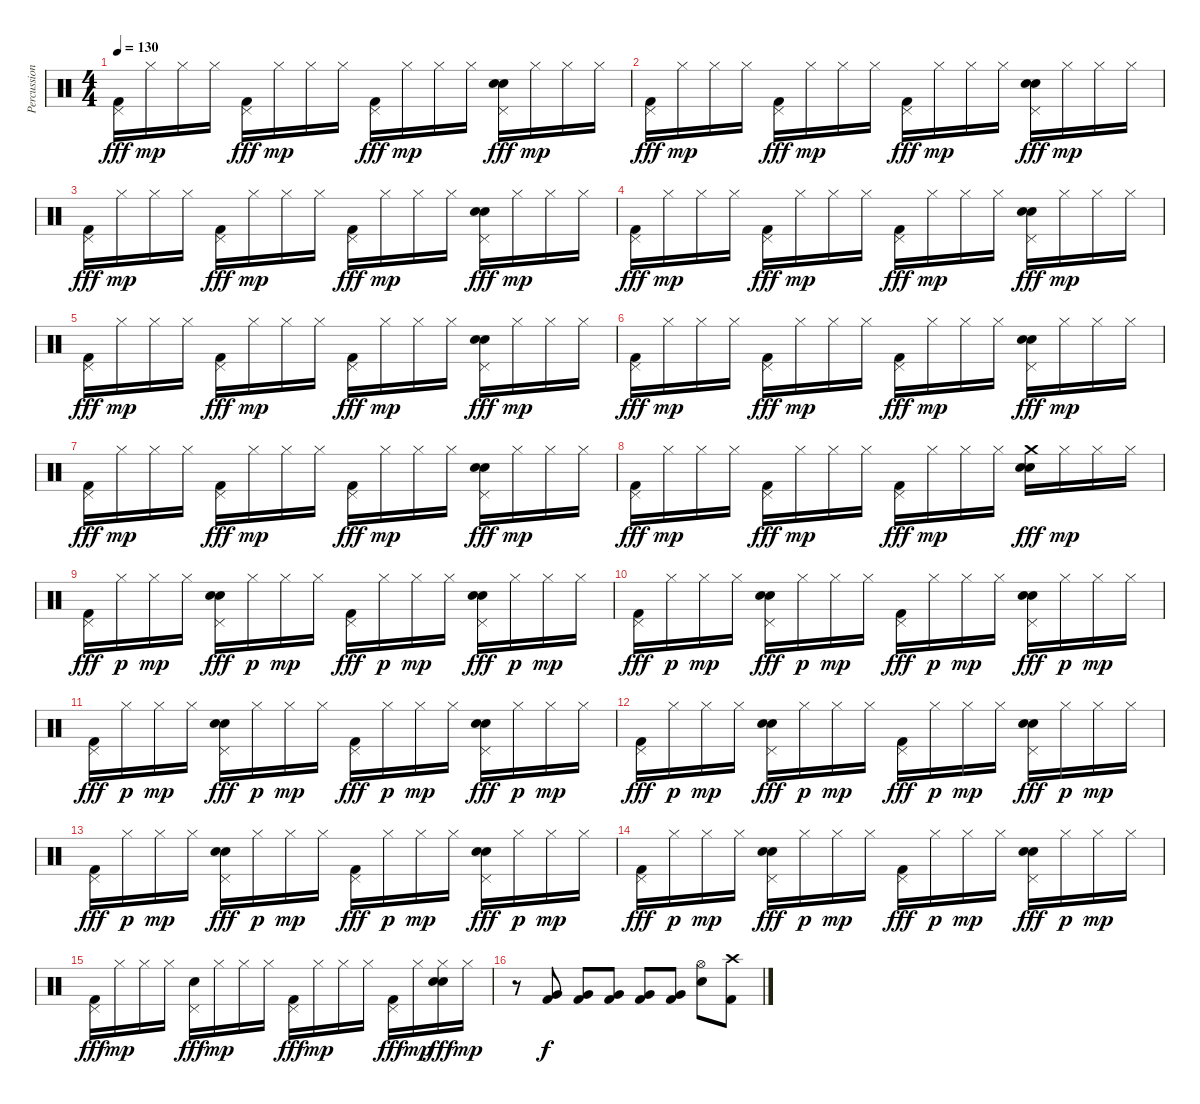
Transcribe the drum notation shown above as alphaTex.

\track ("Percussion" "Percussion") {instrument percussion}
\staff {score}
\articulation defaults
\ts (4 4)
\tempo 130
\clef neutral
\ks c
("Pedal Hi-Hat (hit)" "Kick (hit) 2").16{dy fff} "Hi-Hat (closed)".16{dy mp} "Hi-Hat (closed)".16 "Hi-Hat (closed)".16 ("Pedal Hi-Hat (hit)" "Kick (hit) 2").16{dy fff} "Hi-Hat (closed)".16{dy mp} "Hi-Hat (closed)".16 "Hi-Hat (closed)".16 ("Pedal Hi-Hat (hit)" "Kick (hit) 2").16{dy fff} "Hi-Hat (closed)".16{dy mp} "Hi-Hat (closed)".16 "Hi-Hat (closed)".16 ("Pedal Hi-Hat (hit)" "Snare (hit) 2" "Snare (hit) 2").16{dy fff} "Hi-Hat (closed)".16{dy mp} "Hi-Hat (closed)".16 "Hi-Hat (closed)".16 |
("Pedal Hi-Hat (hit)" "Kick (hit) 2").16{dy fff} "Hi-Hat (closed)".16{dy mp} "Hi-Hat (closed)".16 "Hi-Hat (closed)".16 ("Pedal Hi-Hat (hit)" "Kick (hit) 2").16{dy fff} "Hi-Hat (closed)".16{dy mp} "Hi-Hat (closed)".16 "Hi-Hat (closed)".16 ("Pedal Hi-Hat (hit)" "Kick (hit) 2").16{dy fff} "Hi-Hat (closed)".16{dy mp} "Hi-Hat (closed)".16 "Hi-Hat (closed)".16 ("Pedal Hi-Hat (hit)" "Snare (hit) 2" "Snare (hit) 2").16{dy fff} "Hi-Hat (closed)".16{dy mp} "Hi-Hat (closed)".16 "Hi-Hat (closed)".16 |
("Pedal Hi-Hat (hit)" "Kick (hit) 2").16{dy fff} "Hi-Hat (closed)".16{dy mp} "Hi-Hat (closed)".16 "Hi-Hat (closed)".16 ("Pedal Hi-Hat (hit)" "Kick (hit) 2").16{dy fff} "Hi-Hat (closed)".16{dy mp} "Hi-Hat (closed)".16 "Hi-Hat (closed)".16 ("Pedal Hi-Hat (hit)" "Kick (hit) 2").16{dy fff} "Hi-Hat (closed)".16{dy mp} "Hi-Hat (closed)".16 "Hi-Hat (closed)".16 ("Pedal Hi-Hat (hit)" "Snare (hit) 2" "Snare (hit) 2").16{dy fff} "Hi-Hat (closed)".16{dy mp} "Hi-Hat (closed)".16 "Hi-Hat (closed)".16 |
("Pedal Hi-Hat (hit)" "Kick (hit) 2").16{dy fff} "Hi-Hat (closed)".16{dy mp} "Hi-Hat (closed)".16 "Hi-Hat (closed)".16 ("Pedal Hi-Hat (hit)" "Kick (hit) 2").16{dy fff} "Hi-Hat (closed)".16{dy mp} "Hi-Hat (closed)".16 "Hi-Hat (closed)".16 ("Pedal Hi-Hat (hit)" "Kick (hit) 2").16{dy fff} "Hi-Hat (closed)".16{dy mp} "Hi-Hat (closed)".16 "Hi-Hat (closed)".16 ("Pedal Hi-Hat (hit)" "Snare (hit) 2" "Snare (hit) 2").16{dy fff} "Hi-Hat (closed)".16{dy mp} "Hi-Hat (closed)".16 "Hi-Hat (closed)".16 |
("Pedal Hi-Hat (hit)" "Kick (hit) 2").16{dy fff} "Hi-Hat (closed)".16{dy mp} "Hi-Hat (closed)".16 "Hi-Hat (closed)".16 ("Pedal Hi-Hat (hit)" "Kick (hit) 2").16{dy fff} "Hi-Hat (closed)".16{dy mp} "Hi-Hat (closed)".16 "Hi-Hat (closed)".16 ("Pedal Hi-Hat (hit)" "Kick (hit) 2").16{dy fff} "Hi-Hat (closed)".16{dy mp} "Hi-Hat (closed)".16 "Hi-Hat (closed)".16 ("Pedal Hi-Hat (hit)" "Snare (hit) 2" "Snare (hit) 2").16{dy fff} "Hi-Hat (closed)".16{dy mp} "Hi-Hat (closed)".16 "Hi-Hat (closed)".16 |
("Pedal Hi-Hat (hit)" "Kick (hit) 2").16{dy fff} "Hi-Hat (closed)".16{dy mp} "Hi-Hat (closed)".16 "Hi-Hat (closed)".16 ("Pedal Hi-Hat (hit)" "Kick (hit) 2").16{dy fff} "Hi-Hat (closed)".16{dy mp} "Hi-Hat (closed)".16 "Hi-Hat (closed)".16 ("Pedal Hi-Hat (hit)" "Kick (hit) 2").16{dy fff} "Hi-Hat (closed)".16{dy mp} "Hi-Hat (closed)".16 "Hi-Hat (closed)".16 ("Pedal Hi-Hat (hit)" "Snare (hit) 2" "Snare (hit) 2").16{dy fff} "Hi-Hat (closed)".16{dy mp} "Hi-Hat (closed)".16 "Hi-Hat (closed)".16 |
("Pedal Hi-Hat (hit)" "Kick (hit) 2").16{dy fff} "Hi-Hat (closed)".16{dy mp} "Hi-Hat (closed)".16 "Hi-Hat (closed)".16 ("Pedal Hi-Hat (hit)" "Kick (hit) 2").16{dy fff} "Hi-Hat (closed)".16{dy mp} "Hi-Hat (closed)".16 "Hi-Hat (closed)".16 ("Pedal Hi-Hat (hit)" "Kick (hit) 2").16{dy fff} "Hi-Hat (closed)".16{dy mp} "Hi-Hat (closed)".16 "Hi-Hat (closed)".16 ("Pedal Hi-Hat (hit)" "Snare (hit) 2" "Snare (hit) 2").16{dy fff} "Hi-Hat (closed)".16{dy mp} "Hi-Hat (closed)".16 "Hi-Hat (closed)".16 |
("Pedal Hi-Hat (hit)" "Kick (hit) 2").16{dy fff} "Hi-Hat (closed)".16{dy mp} "Hi-Hat (closed)".16 "Hi-Hat (closed)".16 ("Pedal Hi-Hat (hit)" "Kick (hit) 2").16{dy fff} "Hi-Hat (closed)".16{dy mp} "Hi-Hat (closed)".16 "Hi-Hat (closed)".16 ("Pedal Hi-Hat (hit)" "Kick (hit) 2").16{dy fff} "Hi-Hat (closed)".16{dy mp} "Hi-Hat (closed)".16 "Hi-Hat (closed)".16 ("Crash medium (hit)" "Snare (hit) 2" "Snare (hit) 2").16{dy fff} "Hi-Hat (closed)".16{dy mp} "Hi-Hat (closed)".16 "Hi-Hat (closed)".16 |
("Pedal Hi-Hat (hit)" "Kick (hit) 2").16{dy fff} "Hi-Hat (closed)".16{dy p} "Hi-Hat (closed)".16{dy mp} "Hi-Hat (closed)".16 ("Pedal Hi-Hat (hit)" "Snare (hit) 2" "Snare (hit) 2").16{dy fff} "Hi-Hat (closed)".16{dy p} "Hi-Hat (closed)".16{dy mp} "Hi-Hat (closed)".16 ("Pedal Hi-Hat (hit)" "Kick (hit) 2").16{dy fff} "Hi-Hat (closed)".16{dy p} "Hi-Hat (closed)".16{dy mp} "Hi-Hat (closed)".16 ("Pedal Hi-Hat (hit)" "Snare (hit) 2" "Snare (hit) 2").16{dy fff} "Hi-Hat (closed)".16{dy p} "Hi-Hat (closed)".16{dy mp} "Hi-Hat (closed)".16 |
("Pedal Hi-Hat (hit)" "Kick (hit) 2").16{dy fff} "Hi-Hat (closed)".16{dy p} "Hi-Hat (closed)".16{dy mp} "Hi-Hat (closed)".16 ("Pedal Hi-Hat (hit)" "Snare (hit) 2" "Snare (hit) 2").16{dy fff} "Hi-Hat (closed)".16{dy p} "Hi-Hat (closed)".16{dy mp} "Hi-Hat (closed)".16 ("Pedal Hi-Hat (hit)" "Kick (hit) 2").16{dy fff} "Hi-Hat (closed)".16{dy p} "Hi-Hat (closed)".16{dy mp} "Hi-Hat (closed)".16 ("Pedal Hi-Hat (hit)" "Snare (hit) 2" "Snare (hit) 2").16{dy fff} "Hi-Hat (closed)".16{dy p} "Hi-Hat (closed)".16{dy mp} "Hi-Hat (closed)".16 |
("Pedal Hi-Hat (hit)" "Kick (hit) 2").16{dy fff} "Hi-Hat (closed)".16{dy p} "Hi-Hat (closed)".16{dy mp} "Hi-Hat (closed)".16 ("Pedal Hi-Hat (hit)" "Snare (hit) 2" "Snare (hit) 2").16{dy fff} "Hi-Hat (closed)".16{dy p} "Hi-Hat (closed)".16{dy mp} "Hi-Hat (closed)".16 ("Pedal Hi-Hat (hit)" "Kick (hit) 2").16{dy fff} "Hi-Hat (closed)".16{dy p} "Hi-Hat (closed)".16{dy mp} "Hi-Hat (closed)".16 ("Pedal Hi-Hat (hit)" "Snare (hit) 2" "Snare (hit) 2").16{dy fff} "Hi-Hat (closed)".16{dy p} "Hi-Hat (closed)".16{dy mp} "Hi-Hat (closed)".16 |
("Pedal Hi-Hat (hit)" "Kick (hit) 2").16{dy fff} "Hi-Hat (closed)".16{dy p} "Hi-Hat (closed)".16{dy mp} "Hi-Hat (closed)".16 ("Pedal Hi-Hat (hit)" "Snare (hit) 2" "Snare (hit) 2").16{dy fff} "Hi-Hat (closed)".16{dy p} "Hi-Hat (closed)".16{dy mp} "Hi-Hat (closed)".16 ("Pedal Hi-Hat (hit)" "Kick (hit) 2").16{dy fff} "Hi-Hat (closed)".16{dy p} "Hi-Hat (closed)".16{dy mp} "Hi-Hat (closed)".16 ("Pedal Hi-Hat (hit)" "Snare (hit) 2" "Snare (hit) 2").16{dy fff} "Hi-Hat (closed)".16{dy p} "Hi-Hat (closed)".16{dy mp} "Hi-Hat (closed)".16 |
("Pedal Hi-Hat (hit)" "Kick (hit) 2").16{dy fff} "Hi-Hat (closed)".16{dy p} "Hi-Hat (closed)".16{dy mp} "Hi-Hat (closed)".16 ("Pedal Hi-Hat (hit)" "Snare (hit) 2" "Snare (hit) 2").16{dy fff} "Hi-Hat (closed)".16{dy p} "Hi-Hat (closed)".16{dy mp} "Hi-Hat (closed)".16 ("Pedal Hi-Hat (hit)" "Kick (hit) 2").16{dy fff} "Hi-Hat (closed)".16{dy p} "Hi-Hat (closed)".16{dy mp} "Hi-Hat (closed)".16 ("Pedal Hi-Hat (hit)" "Snare (hit) 2" "Snare (hit) 2").16{dy fff} "Hi-Hat (closed)".16{dy p} "Hi-Hat (closed)".16{dy mp} "Hi-Hat (closed)".16 |
("Pedal Hi-Hat (hit)" "Kick (hit) 2").16{dy fff} "Hi-Hat (closed)".16{dy p} "Hi-Hat (closed)".16{dy mp} "Hi-Hat (closed)".16 ("Pedal Hi-Hat (hit)" "Snare (hit) 2" "Snare (hit) 2").16{dy fff} "Hi-Hat (closed)".16{dy p} "Hi-Hat (closed)".16{dy mp} "Hi-Hat (closed)".16 ("Pedal Hi-Hat (hit)" "Kick (hit) 2").16{dy fff} "Hi-Hat (closed)".16{dy p} "Hi-Hat (closed)".16{dy mp} "Hi-Hat (closed)".16 ("Pedal Hi-Hat (hit)" "Snare (hit) 2" "Snare (hit) 2").16{dy fff} "Hi-Hat (closed)".16{dy p} "Hi-Hat (closed)".16{dy mp} "Hi-Hat (closed)".16 |
("Pedal Hi-Hat (hit)" "Kick (hit) 2").16{dy fff} "Hi-Hat (closed)".16{dy mp} "Hi-Hat (closed)".16 "Hi-Hat (closed)".16 ("Pedal Hi-Hat (hit)" "Snare (hit) 2").16{dy fff} "Hi-Hat (closed)".16{dy mp} "Hi-Hat (closed)".16 "Hi-Hat (closed)".16 ("Pedal Hi-Hat (hit)" "Kick (hit) 2").16{dy fff} "Hi-Hat (closed)".16{dy mp} "Hi-Hat (closed)".16 "Hi-Hat (closed)".16 ("Pedal Hi-Hat (hit)" "Kick (hit) 2").16{dy fff} "Hi-Hat (closed)".16{dy mp} ("Hi-Hat (closed)" "Snare (hit) 2" "Snare (hit) 2").16{dy fff} "Hi-Hat (closed)".16{dy mp} |
r.8 ("Very Low Tom (hit)" "Kick (hit) 2").8{dy f} ("Very Low Tom (hit)" "Kick (hit) 2").8 ("Very Low Tom (hit)" "Kick (hit) 2").8 ("Very Low Tom (hit)" "Kick (hit) 2").8 ("Very Low Tom (hit)" "Kick (hit) 2").8 ("Snare (hit) 2" "Hi-Hat (open)").8 ("Kick (hit) 2" "Crash high (hit)").8
